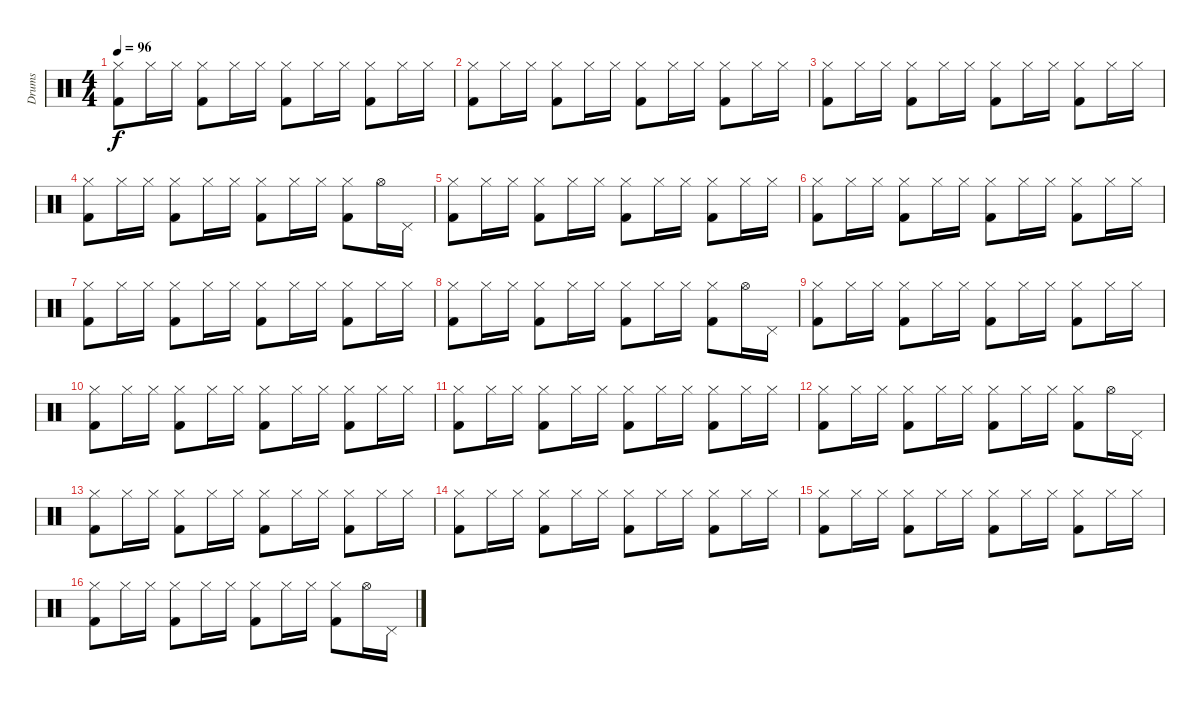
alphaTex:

\track ("Drums" "Drums") {instrument percussion}
\staff {score}
\articulation defaults
\ts (4 4)
\tempo 96
\clef neutral
\ks c
("Hi-Hat (closed)" "Kick (hit) 2").8{dy f} "Hi-Hat (closed)".16 "Hi-Hat (closed)".16 ("Hi-Hat (closed)" "Kick (hit) 2").8 "Hi-Hat (closed)".16 "Hi-Hat (closed)".16 ("Hi-Hat (closed)" "Kick (hit) 2").8 "Hi-Hat (closed)".16 "Hi-Hat (closed)".16 ("Hi-Hat (closed)" "Kick (hit) 2").8 "Hi-Hat (closed)".16 "Hi-Hat (closed)".16 |
("Hi-Hat (closed)" "Kick (hit) 2").8 "Hi-Hat (closed)".16 "Hi-Hat (closed)".16 ("Hi-Hat (closed)" "Kick (hit) 2").8 "Hi-Hat (closed)".16 "Hi-Hat (closed)".16 ("Hi-Hat (closed)" "Kick (hit) 2").8 "Hi-Hat (closed)".16 "Hi-Hat (closed)".16 ("Hi-Hat (closed)" "Kick (hit) 2").8 "Hi-Hat (closed)".16 "Hi-Hat (closed)".16 |
("Hi-Hat (closed)" "Kick (hit) 2").8 "Hi-Hat (closed)".16 "Hi-Hat (closed)".16 ("Hi-Hat (closed)" "Kick (hit) 2").8 "Hi-Hat (closed)".16 "Hi-Hat (closed)".16 ("Hi-Hat (closed)" "Kick (hit) 2").8 "Hi-Hat (closed)".16 "Hi-Hat (closed)".16 ("Hi-Hat (closed)" "Kick (hit) 2").8 "Hi-Hat (closed)".16 "Hi-Hat (closed)".16 |
("Hi-Hat (closed)" "Kick (hit) 2").8 "Hi-Hat (closed)".16 "Hi-Hat (closed)".16 ("Hi-Hat (closed)" "Kick (hit) 2").8 "Hi-Hat (closed)".16 "Hi-Hat (closed)".16 ("Hi-Hat (closed)" "Kick (hit) 2").8 "Hi-Hat (closed)".16 "Hi-Hat (closed)".16 ("Hi-Hat (closed)" "Kick (hit) 2").8 "Hi-Hat (open)".16 "Pedal Hi-Hat (hit)".16 |
("Hi-Hat (closed)" "Kick (hit) 2").8 "Hi-Hat (closed)".16 "Hi-Hat (closed)".16 ("Hi-Hat (closed)" "Kick (hit) 2").8 "Hi-Hat (closed)".16 "Hi-Hat (closed)".16 ("Hi-Hat (closed)" "Kick (hit) 2").8 "Hi-Hat (closed)".16 "Hi-Hat (closed)".16 ("Hi-Hat (closed)" "Kick (hit) 2").8 "Hi-Hat (closed)".16 "Hi-Hat (closed)".16 |
("Hi-Hat (closed)" "Kick (hit) 2").8 "Hi-Hat (closed)".16 "Hi-Hat (closed)".16 ("Hi-Hat (closed)" "Kick (hit) 2").8 "Hi-Hat (closed)".16 "Hi-Hat (closed)".16 ("Hi-Hat (closed)" "Kick (hit) 2").8 "Hi-Hat (closed)".16 "Hi-Hat (closed)".16 ("Hi-Hat (closed)" "Kick (hit) 2").8 "Hi-Hat (closed)".16 "Hi-Hat (closed)".16 |
("Hi-Hat (closed)" "Kick (hit) 2").8 "Hi-Hat (closed)".16 "Hi-Hat (closed)".16 ("Hi-Hat (closed)" "Kick (hit) 2").8 "Hi-Hat (closed)".16 "Hi-Hat (closed)".16 ("Hi-Hat (closed)" "Kick (hit) 2").8 "Hi-Hat (closed)".16 "Hi-Hat (closed)".16 ("Hi-Hat (closed)" "Kick (hit) 2").8 "Hi-Hat (closed)".16 "Hi-Hat (closed)".16 |
("Hi-Hat (closed)" "Kick (hit) 2").8 "Hi-Hat (closed)".16 "Hi-Hat (closed)".16 ("Hi-Hat (closed)" "Kick (hit) 2").8 "Hi-Hat (closed)".16 "Hi-Hat (closed)".16 ("Hi-Hat (closed)" "Kick (hit) 2").8 "Hi-Hat (closed)".16 "Hi-Hat (closed)".16 ("Hi-Hat (closed)" "Kick (hit) 2").8 "Hi-Hat (open)".16 "Pedal Hi-Hat (hit)".16 |
("Hi-Hat (closed)" "Kick (hit) 2").8 "Hi-Hat (closed)".16 "Hi-Hat (closed)".16 ("Hi-Hat (closed)" "Kick (hit) 2").8 "Hi-Hat (closed)".16 "Hi-Hat (closed)".16 ("Hi-Hat (closed)" "Kick (hit) 2").8 "Hi-Hat (closed)".16 "Hi-Hat (closed)".16 ("Hi-Hat (closed)" "Kick (hit) 2").8 "Hi-Hat (closed)".16 "Hi-Hat (closed)".16 |
("Hi-Hat (closed)" "Kick (hit) 2").8 "Hi-Hat (closed)".16 "Hi-Hat (closed)".16 ("Hi-Hat (closed)" "Kick (hit) 2").8 "Hi-Hat (closed)".16 "Hi-Hat (closed)".16 ("Hi-Hat (closed)" "Kick (hit) 2").8 "Hi-Hat (closed)".16 "Hi-Hat (closed)".16 ("Hi-Hat (closed)" "Kick (hit) 2").8 "Hi-Hat (closed)".16 "Hi-Hat (closed)".16 |
("Hi-Hat (closed)" "Kick (hit) 2").8 "Hi-Hat (closed)".16 "Hi-Hat (closed)".16 ("Hi-Hat (closed)" "Kick (hit) 2").8 "Hi-Hat (closed)".16 "Hi-Hat (closed)".16 ("Hi-Hat (closed)" "Kick (hit) 2").8 "Hi-Hat (closed)".16 "Hi-Hat (closed)".16 ("Hi-Hat (closed)" "Kick (hit) 2").8 "Hi-Hat (closed)".16 "Hi-Hat (closed)".16 |
("Hi-Hat (closed)" "Kick (hit) 2").8 "Hi-Hat (closed)".16 "Hi-Hat (closed)".16 ("Hi-Hat (closed)" "Kick (hit) 2").8 "Hi-Hat (closed)".16 "Hi-Hat (closed)".16 ("Hi-Hat (closed)" "Kick (hit) 2").8 "Hi-Hat (closed)".16 "Hi-Hat (closed)".16 ("Hi-Hat (closed)" "Kick (hit) 2").8 "Hi-Hat (open)".16 "Pedal Hi-Hat (hit)".16 |
("Hi-Hat (closed)" "Kick (hit) 2").8 "Hi-Hat (closed)".16 "Hi-Hat (closed)".16 ("Hi-Hat (closed)" "Kick (hit) 2").8 "Hi-Hat (closed)".16 "Hi-Hat (closed)".16 ("Hi-Hat (closed)" "Kick (hit) 2").8 "Hi-Hat (closed)".16 "Hi-Hat (closed)".16 ("Hi-Hat (closed)" "Kick (hit) 2").8 "Hi-Hat (closed)".16 "Hi-Hat (closed)".16 |
("Hi-Hat (closed)" "Kick (hit) 2").8 "Hi-Hat (closed)".16 "Hi-Hat (closed)".16 ("Hi-Hat (closed)" "Kick (hit) 2").8 "Hi-Hat (closed)".16 "Hi-Hat (closed)".16 ("Hi-Hat (closed)" "Kick (hit) 2").8 "Hi-Hat (closed)".16 "Hi-Hat (closed)".16 ("Hi-Hat (closed)" "Kick (hit) 2").8 "Hi-Hat (closed)".16 "Hi-Hat (closed)".16 |
("Hi-Hat (closed)" "Kick (hit) 2").8 "Hi-Hat (closed)".16 "Hi-Hat (closed)".16 ("Hi-Hat (closed)" "Kick (hit) 2").8 "Hi-Hat (closed)".16 "Hi-Hat (closed)".16 ("Hi-Hat (closed)" "Kick (hit) 2").8 "Hi-Hat (closed)".16 "Hi-Hat (closed)".16 ("Hi-Hat (closed)" "Kick (hit) 2").8 "Hi-Hat (closed)".16 "Hi-Hat (closed)".16 |
("Hi-Hat (closed)" "Kick (hit) 2").8 "Hi-Hat (closed)".16 "Hi-Hat (closed)".16 ("Hi-Hat (closed)" "Kick (hit) 2").8 "Hi-Hat (closed)".16 "Hi-Hat (closed)".16 ("Hi-Hat (closed)" "Kick (hit) 2").8 "Hi-Hat (closed)".16 "Hi-Hat (closed)".16 ("Hi-Hat (closed)" "Kick (hit) 2").8 "Hi-Hat (open)".16 "Pedal Hi-Hat (hit)".16
